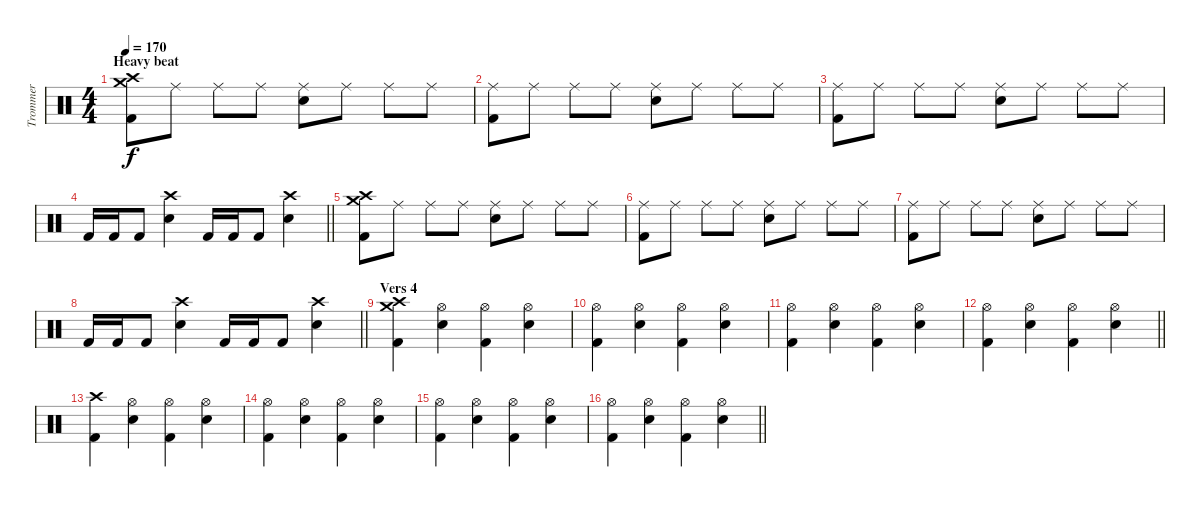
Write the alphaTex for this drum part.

\track ("Trommer" "Trommer") {instrument percussion}
\staff {score}
\articulation defaults
\ts (4 4)
\section ("" "Heavy beat")
\tempo 170
\clef neutral
\ks c
("Crash medium (hit)" "Crash high (hit)" "Kick (hit) 2").8{dy f} "Ride (middle)".8 "Ride (middle)".8 "Ride (middle)".8 ("Ride (middle)" "Snare (hit) 2").8 "Ride (middle)".8 "Ride (middle)".8 "Ride (middle)".8 |
("Ride (middle)" "Kick (hit) 2").8 "Ride (middle)".8 "Ride (middle)".8 "Ride (middle)".8 ("Ride (middle)" "Snare (hit) 2").8 "Ride (middle)".8 "Ride (middle)".8 "Ride (middle)".8 |
("Ride (middle)" "Kick (hit) 2").8 "Ride (middle)".8 "Ride (middle)".8 "Ride (middle)".8 ("Ride (middle)" "Snare (hit) 2").8 "Ride (middle)".8 "Ride (middle)".8 "Ride (middle)".8 |
\barLineRight lightlight "Kick (hit) 2".16 "Kick (hit) 2".16 "Kick (hit) 2".8
("Crash high (hit)" "Snare (hit) 2").4 "Kick (hit) 2".16 "Kick (hit) 2".16 "Kick (hit) 2".8 ("Crash high (hit)" "Snare (hit) 2").4 |
("Crash medium (hit)" "Crash high (hit)" "Kick (hit) 2").8 "Ride (middle)".8 "Ride (middle)".8 "Ride (middle)".8 ("Ride (middle)" "Snare (hit) 2").8 "Ride (middle)".8 "Ride (middle)".8 "Ride (middle)".8 |
("Ride (middle)" "Kick (hit) 2").8 "Ride (middle)".8 "Ride (middle)".8 "Ride (middle)".8 ("Ride (middle)" "Snare (hit) 2").8 "Ride (middle)".8 "Ride (middle)".8 "Ride (middle)".8 |
("Ride (middle)" "Kick (hit) 2").8 "Ride (middle)".8 "Ride (middle)".8 "Ride (middle)".8 ("Ride (middle)" "Snare (hit) 2").8 "Ride (middle)".8 "Ride (middle)".8 "Ride (middle)".8 |
\barLineRight lightlight "Kick (hit) 2".16 "Kick (hit) 2".16 "Kick (hit) 2".8
("Crash high (hit)" "Snare (hit) 2").4 "Kick (hit) 2".16 "Kick (hit) 2".16 "Kick (hit) 2".8 ("Crash high (hit)" "Snare (hit) 2").4 |
\section ("" "Vers 4")
("Crash medium (hit)" "Crash high (hit)" "Kick (hit) 2").4 ("Hi-Hat (open)" "Snare (hit) 2").4 ("Hi-Hat (open)" "Kick (hit) 2").4 ("Hi-Hat (open)" "Snare (hit) 2").4 |
("Hi-Hat (open)" "Kick (hit) 2").4 ("Hi-Hat (open)" "Snare (hit) 2").4 ("Hi-Hat (open)" "Kick (hit) 2").4 ("Hi-Hat (open)" "Snare (hit) 2").4 |
("Hi-Hat (open)" "Kick (hit) 2").4 ("Hi-Hat (open)" "Snare (hit) 2").4 ("Hi-Hat (open)" "Kick (hit) 2").4 ("Hi-Hat (open)" "Snare (hit) 2").4 |
\barLineRight lightlight
("Hi-Hat (open)" "Kick (hit) 2").4 ("Hi-Hat (open)" "Snare (hit) 2").4 ("Hi-Hat (open)" "Kick (hit) 2").4 ("Hi-Hat (open)" "Snare (hit) 2").4 |
("Crash high (hit)" "Kick (hit) 2").4 ("Hi-Hat (open)" "Snare (hit) 2").4 ("Hi-Hat (open)" "Kick (hit) 2").4 ("Hi-Hat (open)" "Snare (hit) 2").4 |
("Hi-Hat (open)" "Kick (hit) 2").4 ("Hi-Hat (open)" "Snare (hit) 2").4 ("Hi-Hat (open)" "Kick (hit) 2").4 ("Hi-Hat (open)" "Snare (hit) 2").4 |
("Hi-Hat (open)" "Kick (hit) 2").4 ("Hi-Hat (open)" "Snare (hit) 2").4 ("Hi-Hat (open)" "Kick (hit) 2").4 ("Hi-Hat (open)" "Snare (hit) 2").4 |
\barLineRight lightlight
("Hi-Hat (open)" "Kick (hit) 2").4 ("Hi-Hat (open)" "Snare (hit) 2").4 ("Hi-Hat (open)" "Kick (hit) 2").4 ("Hi-Hat (open)" "Snare (hit) 2").4
